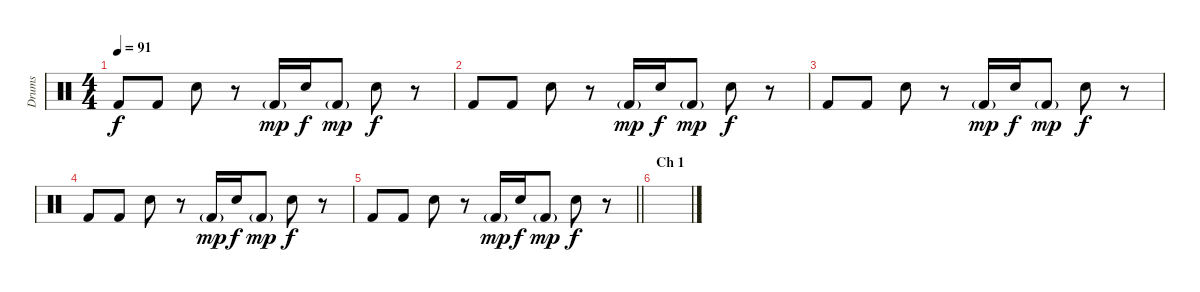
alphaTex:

\track ("Drums" "Drums") {instrument percussion}
\staff {score}
\articulation defaults
\ts (4 4)
\tempo 91
\clef neutral
\ks c "Kick (hit) 2".8{dy f} "Kick (hit) 2".8 "Electric Snare (hit)".8
r.8 "Kick (hit) 2"{g}.16{dy mp} "Electric Snare (hit)".16{dy f} "Kick (hit) 2"{g}.8{dy mp} "Electric Snare (hit)".8{dy f} r.8 |
"Kick (hit) 2".8 "Kick (hit) 2".8 "Electric Snare (hit)".8 r.8 "Kick (hit) 2"{g}.16{dy mp} "Electric Snare (hit)".16{dy f} "Kick (hit) 2"{g}.8{dy mp} "Electric Snare (hit)".8{dy f} r.8 |
"Kick (hit) 2".8 "Kick (hit) 2".8 "Electric Snare (hit)".8 r.8 "Kick (hit) 2"{g}.16{dy mp} "Electric Snare (hit)".16{dy f} "Kick (hit) 2"{g}.8{dy mp} "Electric Snare (hit)".8{dy f} r.8 |
"Kick (hit) 2".8 "Kick (hit) 2".8 "Electric Snare (hit)".8 r.8 "Kick (hit) 2"{g}.16{dy mp} "Electric Snare (hit)".16{dy f} "Kick (hit) 2"{g}.8{dy mp} "Electric Snare (hit)".8{dy f} r.8 |
\barLineRight lightlight "Kick (hit) 2".8 "Kick (hit) 2".8 "Electric Snare (hit)".8
r.8 "Kick (hit) 2"{g}.16{dy mp} "Electric Snare (hit)".16{dy f} "Kick (hit) 2"{g}.8{dy mp} "Electric Snare (hit)".8{dy f} r.8 |
\section ("" "Ch 1")
